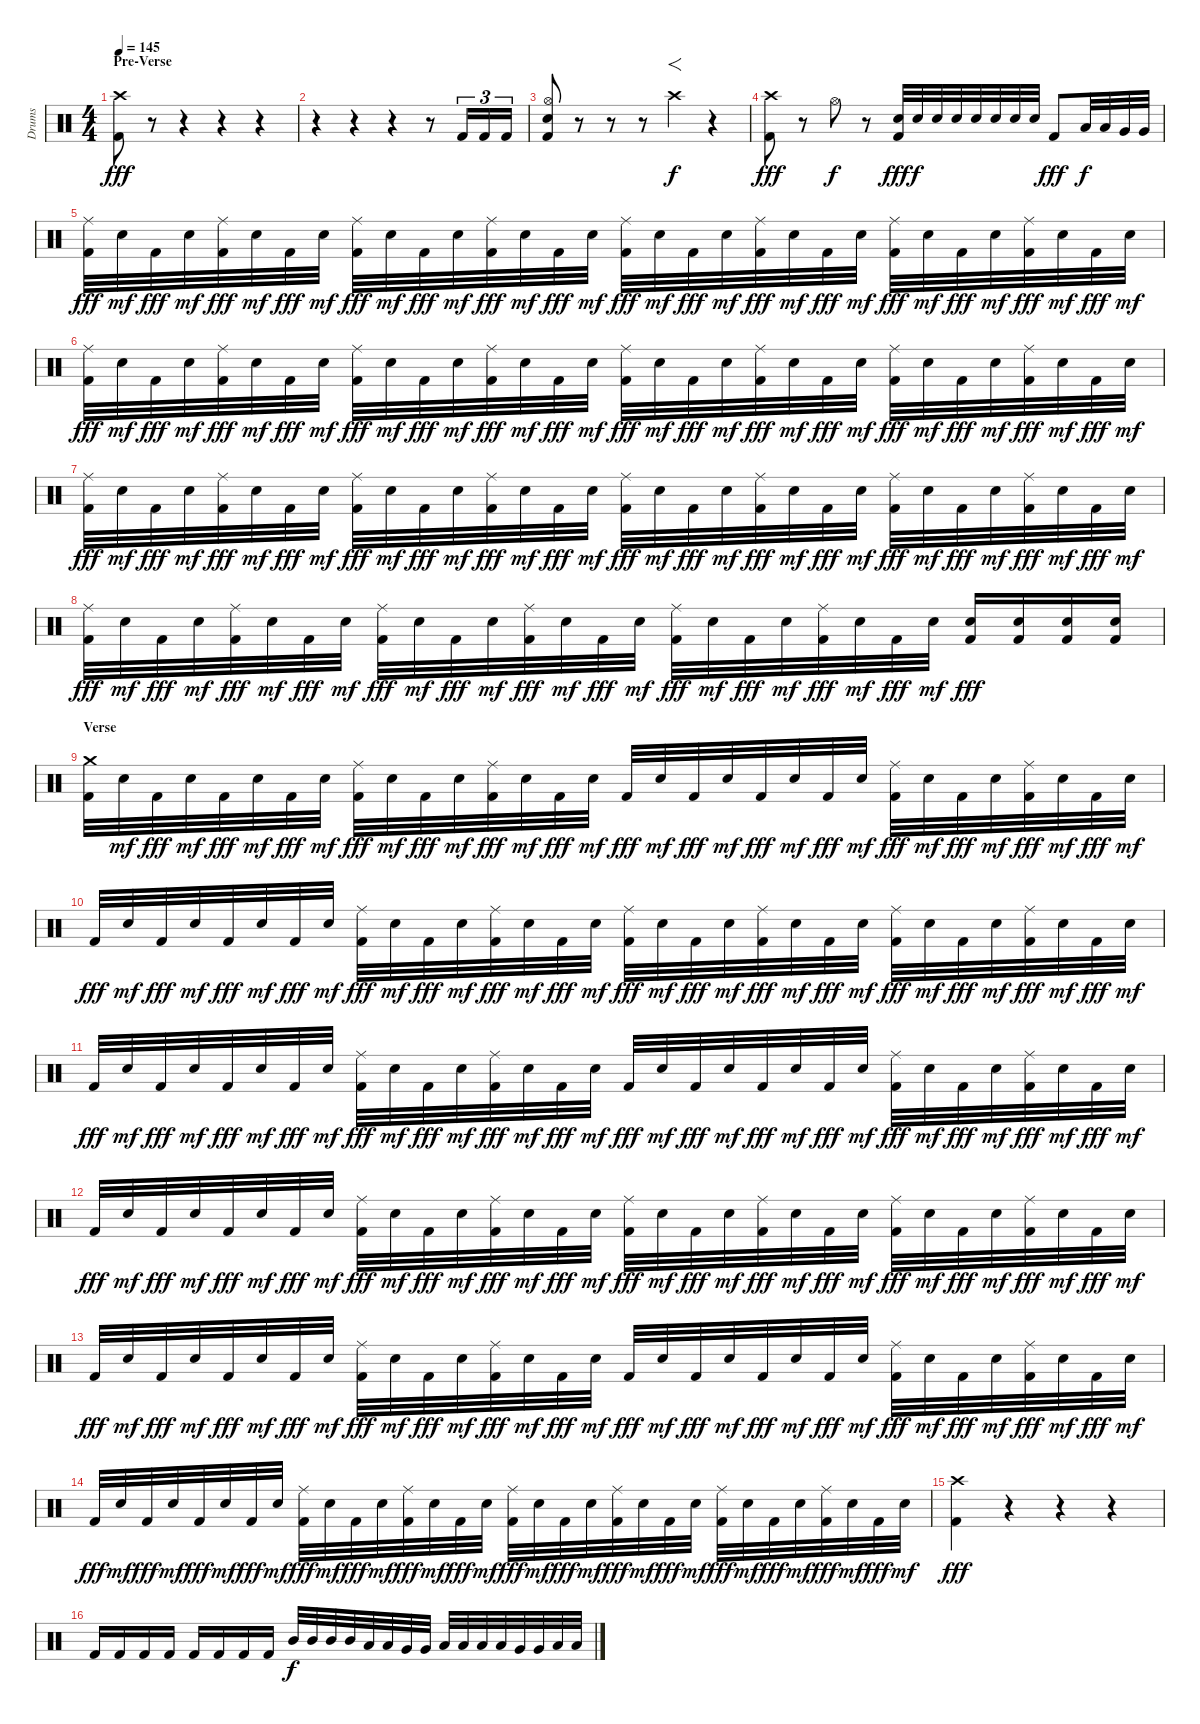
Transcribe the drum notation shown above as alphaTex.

\track ("Drums" "Drums") {instrument percussion}
\staff {score}
\articulation defaults
\ts (4 4)
\section ("" "Pre-Verse")
\tempo 145
\clef neutral
\ks c
("Crash high (hit)" "Kick (hit) 2").8{dy fff} r.8 r.4 r.4 r.4 |
r.4 r.4 r.4 r.8 "Kick (hit) 2".16{tu (3 2)} "Kick (hit) 2".16{tu (3 2)} "Kick (hit) 2".16{tu (3 2)} |
("Hi-Hat (open)" "Electric Snare (hit)" "Kick (hit) 2").8 r.8 r.8 r.8 "Crash high (hit)".4{f dy f} r.4 |
("Crash high (hit)" "Kick (hit) 2").8{dy fff} r.8 "Hi-Hat (open)".8{dy f} r.8 ("Electric Snare (hit)" "Kick (hit) 2").32{dy fff} "Electric Snare (hit)".32{dy f} "Electric Snare (hit)".32 "Electric Snare (hit)".32 "Electric Snare (hit)".32 "Electric Snare (hit)".32 "Electric Snare (hit)".32 "Electric Snare (hit)".32 "Kick (hit) 2".8{dy fff} "Low Tom (hit)".32{dy f} "Low Tom (hit)".32 "Very Low Tom (hit)".32 "Very Low Tom (hit)".32 |
("Ride (middle)" "Kick (hit) 2").32{dy fff} "Electric Snare (hit)".32{dy mf} "Kick (hit) 2".32{dy fff} "Electric Snare (hit)".32{dy mf} ("Ride (middle)" "Kick (hit) 2").32{dy fff} "Electric Snare (hit)".32{dy mf} "Kick (hit) 2".32{dy fff} "Electric Snare (hit)".32{dy mf} ("Ride (middle)" "Kick (hit) 2").32{dy fff} "Electric Snare (hit)".32{dy mf} "Kick (hit) 2".32{dy fff} "Electric Snare (hit)".32{dy mf} ("Ride (middle)" "Kick (hit) 2").32{dy fff} "Electric Snare (hit)".32{dy mf} "Kick (hit) 2".32{dy fff} "Electric Snare (hit)".32{dy mf} ("Ride (middle)" "Kick (hit) 2").32{dy fff} "Electric Snare (hit)".32{dy mf} "Kick (hit) 2".32{dy fff} "Electric Snare (hit)".32{dy mf} ("Ride (middle)" "Kick (hit) 2").32{dy fff} "Electric Snare (hit)".32{dy mf} "Kick (hit) 2".32{dy fff} "Electric Snare (hit)".32{dy mf} ("Ride (middle)" "Kick (hit) 2").32{dy fff} "Electric Snare (hit)".32{dy mf} "Kick (hit) 2".32{dy fff} "Electric Snare (hit)".32{dy mf} ("Ride (middle)" "Kick (hit) 2").32{dy fff} "Electric Snare (hit)".32{dy mf} "Kick (hit) 2".32{dy fff} "Electric Snare (hit)".32{dy mf} |
("Ride (middle)" "Kick (hit) 2").32{dy fff} "Electric Snare (hit)".32{dy mf} "Kick (hit) 2".32{dy fff} "Electric Snare (hit)".32{dy mf} ("Ride (middle)" "Kick (hit) 2").32{dy fff} "Electric Snare (hit)".32{dy mf} "Kick (hit) 2".32{dy fff} "Electric Snare (hit)".32{dy mf} ("Ride (middle)" "Kick (hit) 2").32{dy fff} "Electric Snare (hit)".32{dy mf} "Kick (hit) 2".32{dy fff} "Electric Snare (hit)".32{dy mf} ("Ride (middle)" "Kick (hit) 2").32{dy fff} "Electric Snare (hit)".32{dy mf} "Kick (hit) 2".32{dy fff} "Electric Snare (hit)".32{dy mf} ("Ride (middle)" "Kick (hit) 2").32{dy fff} "Electric Snare (hit)".32{dy mf} "Kick (hit) 2".32{dy fff} "Electric Snare (hit)".32{dy mf} ("Ride (middle)" "Kick (hit) 2").32{dy fff} "Electric Snare (hit)".32{dy mf} "Kick (hit) 2".32{dy fff} "Electric Snare (hit)".32{dy mf} ("Ride (middle)" "Kick (hit) 2").32{dy fff} "Electric Snare (hit)".32{dy mf} "Kick (hit) 2".32{dy fff} "Electric Snare (hit)".32{dy mf} ("Ride (middle)" "Kick (hit) 2").32{dy fff} "Electric Snare (hit)".32{dy mf} "Kick (hit) 2".32{dy fff} "Electric Snare (hit)".32{dy mf} |
("Ride (middle)" "Kick (hit) 2").32{dy fff} "Electric Snare (hit)".32{dy mf} "Kick (hit) 2".32{dy fff} "Electric Snare (hit)".32{dy mf} ("Ride (middle)" "Kick (hit) 2").32{dy fff} "Electric Snare (hit)".32{dy mf} "Kick (hit) 2".32{dy fff} "Electric Snare (hit)".32{dy mf} ("Ride (middle)" "Kick (hit) 2").32{dy fff} "Electric Snare (hit)".32{dy mf} "Kick (hit) 2".32{dy fff} "Electric Snare (hit)".32{dy mf} ("Ride (middle)" "Kick (hit) 2").32{dy fff} "Electric Snare (hit)".32{dy mf} "Kick (hit) 2".32{dy fff} "Electric Snare (hit)".32{dy mf} ("Ride (middle)" "Kick (hit) 2").32{dy fff} "Electric Snare (hit)".32{dy mf} "Kick (hit) 2".32{dy fff} "Electric Snare (hit)".32{dy mf} ("Ride (middle)" "Kick (hit) 2").32{dy fff} "Electric Snare (hit)".32{dy mf} "Kick (hit) 2".32{dy fff} "Electric Snare (hit)".32{dy mf} ("Ride (middle)" "Kick (hit) 2").32{dy fff} "Electric Snare (hit)".32{dy mf} "Kick (hit) 2".32{dy fff} "Electric Snare (hit)".32{dy mf} ("Ride (middle)" "Kick (hit) 2").32{dy fff} "Electric Snare (hit)".32{dy mf} "Kick (hit) 2".32{dy fff} "Electric Snare (hit)".32{dy mf} |
("Ride (middle)" "Kick (hit) 2").32{dy fff} "Electric Snare (hit)".32{dy mf} "Kick (hit) 2".32{dy fff} "Electric Snare (hit)".32{dy mf} ("Ride (middle)" "Kick (hit) 2").32{dy fff} "Electric Snare (hit)".32{dy mf} "Kick (hit) 2".32{dy fff} "Electric Snare (hit)".32{dy mf} ("Ride (middle)" "Kick (hit) 2").32{dy fff} "Electric Snare (hit)".32{dy mf} "Kick (hit) 2".32{dy fff} "Electric Snare (hit)".32{dy mf} ("Ride (middle)" "Kick (hit) 2").32{dy fff} "Electric Snare (hit)".32{dy mf} "Kick (hit) 2".32{dy fff} "Electric Snare (hit)".32{dy mf} ("Ride (middle)" "Kick (hit) 2").32{dy fff} "Electric Snare (hit)".32{dy mf} "Kick (hit) 2".32{dy fff} "Electric Snare (hit)".32{dy mf} ("Ride (middle)" "Kick (hit) 2").32{dy fff} "Electric Snare (hit)".32{dy mf} "Kick (hit) 2".32{dy fff} "Electric Snare (hit)".32{dy mf} ("Electric Snare (hit)" "Kick (hit) 2").16{dy fff} ("Electric Snare (hit)" "Kick (hit) 2").16 ("Electric Snare (hit)" "Kick (hit) 2").16 ("Electric Snare (hit)" "Kick (hit) 2").16 |
\section ("" "Verse")
("Crash medium (hit)" "Kick (hit) 2").32 "Electric Snare (hit)".32{dy mf} "Kick (hit) 2".32{dy fff} "Electric Snare (hit)".32{dy mf} "Kick (hit) 2".32{dy fff} "Electric Snare (hit)".32{dy mf} "Kick (hit) 2".32{dy fff} "Electric Snare (hit)".32{dy mf} ("Ride (middle)" "Kick (hit) 2").32{dy fff} "Electric Snare (hit)".32{dy mf} "Kick (hit) 2".32{dy fff} "Electric Snare (hit)".32{dy mf} ("Ride (middle)" "Kick (hit) 2").32{dy fff} "Electric Snare (hit)".32{dy mf} "Kick (hit) 2".32{dy fff} "Electric Snare (hit)".32{dy mf} "Kick (hit) 2".32{dy fff} "Electric Snare (hit)".32{dy mf} "Kick (hit) 2".32{dy fff} "Electric Snare (hit)".32{dy mf} "Kick (hit) 2".32{dy fff} "Electric Snare (hit)".32{dy mf} "Kick (hit) 2".32{dy fff} "Electric Snare (hit)".32{dy mf} ("Ride (middle)" "Kick (hit) 2").32{dy fff} "Electric Snare (hit)".32{dy mf} "Kick (hit) 2".32{dy fff} "Electric Snare (hit)".32{dy mf} ("Ride (middle)" "Kick (hit) 2").32{dy fff} "Electric Snare (hit)".32{dy mf} "Kick (hit) 2".32{dy fff} "Electric Snare (hit)".32{dy mf} |
"Kick (hit) 2".32{dy fff} "Electric Snare (hit)".32{dy mf} "Kick (hit) 2".32{dy fff} "Electric Snare (hit)".32{dy mf} "Kick (hit) 2".32{dy fff} "Electric Snare (hit)".32{dy mf} "Kick (hit) 2".32{dy fff} "Electric Snare (hit)".32{dy mf} ("Ride (middle)" "Kick (hit) 2").32{dy fff} "Electric Snare (hit)".32{dy mf} "Kick (hit) 2".32{dy fff} "Electric Snare (hit)".32{dy mf} ("Ride (middle)" "Kick (hit) 2").32{dy fff} "Electric Snare (hit)".32{dy mf} "Kick (hit) 2".32{dy fff} "Electric Snare (hit)".32{dy mf} ("Ride (middle)" "Kick (hit) 2").32{dy fff} "Electric Snare (hit)".32{dy mf} "Kick (hit) 2".32{dy fff} "Electric Snare (hit)".32{dy mf} ("Ride (middle)" "Kick (hit) 2").32{dy fff} "Electric Snare (hit)".32{dy mf} "Kick (hit) 2".32{dy fff} "Electric Snare (hit)".32{dy mf} ("Ride (middle)" "Kick (hit) 2").32{dy fff} "Electric Snare (hit)".32{dy mf} "Kick (hit) 2".32{dy fff} "Electric Snare (hit)".32{dy mf} ("Ride (middle)" "Kick (hit) 2").32{dy fff} "Electric Snare (hit)".32{dy mf} "Kick (hit) 2".32{dy fff} "Electric Snare (hit)".32{dy mf} |
"Kick (hit) 2".32{dy fff} "Electric Snare (hit)".32{dy mf} "Kick (hit) 2".32{dy fff} "Electric Snare (hit)".32{dy mf} "Kick (hit) 2".32{dy fff} "Electric Snare (hit)".32{dy mf} "Kick (hit) 2".32{dy fff} "Electric Snare (hit)".32{dy mf} ("Ride (middle)" "Kick (hit) 2").32{dy fff} "Electric Snare (hit)".32{dy mf} "Kick (hit) 2".32{dy fff} "Electric Snare (hit)".32{dy mf} ("Ride (middle)" "Kick (hit) 2").32{dy fff} "Electric Snare (hit)".32{dy mf} "Kick (hit) 2".32{dy fff} "Electric Snare (hit)".32{dy mf} "Kick (hit) 2".32{dy fff} "Electric Snare (hit)".32{dy mf} "Kick (hit) 2".32{dy fff} "Electric Snare (hit)".32{dy mf} "Kick (hit) 2".32{dy fff} "Electric Snare (hit)".32{dy mf} "Kick (hit) 2".32{dy fff} "Electric Snare (hit)".32{dy mf} ("Ride (middle)" "Kick (hit) 2").32{dy fff} "Electric Snare (hit)".32{dy mf} "Kick (hit) 2".32{dy fff} "Electric Snare (hit)".32{dy mf} ("Ride (middle)" "Kick (hit) 2").32{dy fff} "Electric Snare (hit)".32{dy mf} "Kick (hit) 2".32{dy fff} "Electric Snare (hit)".32{dy mf} |
"Kick (hit) 2".32{dy fff} "Electric Snare (hit)".32{dy mf} "Kick (hit) 2".32{dy fff} "Electric Snare (hit)".32{dy mf} "Kick (hit) 2".32{dy fff} "Electric Snare (hit)".32{dy mf} "Kick (hit) 2".32{dy fff} "Electric Snare (hit)".32{dy mf} ("Ride (middle)" "Kick (hit) 2").32{dy fff} "Electric Snare (hit)".32{dy mf} "Kick (hit) 2".32{dy fff} "Electric Snare (hit)".32{dy mf} ("Ride (middle)" "Kick (hit) 2").32{dy fff} "Electric Snare (hit)".32{dy mf} "Kick (hit) 2".32{dy fff} "Electric Snare (hit)".32{dy mf} ("Ride (middle)" "Kick (hit) 2").32{dy fff} "Electric Snare (hit)".32{dy mf} "Kick (hit) 2".32{dy fff} "Electric Snare (hit)".32{dy mf} ("Ride (middle)" "Kick (hit) 2").32{dy fff} "Electric Snare (hit)".32{dy mf} "Kick (hit) 2".32{dy fff} "Electric Snare (hit)".32{dy mf} ("Ride (middle)" "Kick (hit) 2").32{dy fff} "Electric Snare (hit)".32{dy mf} "Kick (hit) 2".32{dy fff} "Electric Snare (hit)".32{dy mf} ("Ride (middle)" "Kick (hit) 2").32{dy fff} "Electric Snare (hit)".32{dy mf} "Kick (hit) 2".32{dy fff} "Electric Snare (hit)".32{dy mf} |
"Kick (hit) 2".32{dy fff} "Electric Snare (hit)".32{dy mf} "Kick (hit) 2".32{dy fff} "Electric Snare (hit)".32{dy mf} "Kick (hit) 2".32{dy fff} "Electric Snare (hit)".32{dy mf} "Kick (hit) 2".32{dy fff} "Electric Snare (hit)".32{dy mf} ("Ride (middle)" "Kick (hit) 2").32{dy fff} "Electric Snare (hit)".32{dy mf} "Kick (hit) 2".32{dy fff} "Electric Snare (hit)".32{dy mf} ("Ride (middle)" "Kick (hit) 2").32{dy fff} "Electric Snare (hit)".32{dy mf} "Kick (hit) 2".32{dy fff} "Electric Snare (hit)".32{dy mf} "Kick (hit) 2".32{dy fff} "Electric Snare (hit)".32{dy mf} "Kick (hit) 2".32{dy fff} "Electric Snare (hit)".32{dy mf} "Kick (hit) 2".32{dy fff} "Electric Snare (hit)".32{dy mf} "Kick (hit) 2".32{dy fff} "Electric Snare (hit)".32{dy mf} ("Ride (middle)" "Kick (hit) 2").32{dy fff} "Electric Snare (hit)".32{dy mf} "Kick (hit) 2".32{dy fff} "Electric Snare (hit)".32{dy mf} ("Ride (middle)" "Kick (hit) 2").32{dy fff} "Electric Snare (hit)".32{dy mf} "Kick (hit) 2".32{dy fff} "Electric Snare (hit)".32{dy mf} |
"Kick (hit) 2".32{dy fff} "Electric Snare (hit)".32{dy mf} "Kick (hit) 2".32{dy fff} "Electric Snare (hit)".32{dy mf} "Kick (hit) 2".32{dy fff} "Electric Snare (hit)".32{dy mf} "Kick (hit) 2".32{dy fff} "Electric Snare (hit)".32{dy mf} ("Ride (middle)" "Kick (hit) 2").32{dy fff} "Electric Snare (hit)".32{dy mf} "Kick (hit) 2".32{dy fff} "Electric Snare (hit)".32{dy mf} ("Ride (middle)" "Kick (hit) 2").32{dy fff} "Electric Snare (hit)".32{dy mf} "Kick (hit) 2".32{dy fff} "Electric Snare (hit)".32{dy mf} ("Ride (middle)" "Kick (hit) 2").32{dy fff} "Electric Snare (hit)".32{dy mf} "Kick (hit) 2".32{dy fff} "Electric Snare (hit)".32{dy mf} ("Ride (middle)" "Kick (hit) 2").32{dy fff} "Electric Snare (hit)".32{dy mf} "Kick (hit) 2".32{dy fff} "Electric Snare (hit)".32{dy mf} ("Ride (middle)" "Kick (hit) 2").32{dy fff} "Electric Snare (hit)".32{dy mf} "Kick (hit) 2".32{dy fff} "Electric Snare (hit)".32{dy mf} ("Ride (middle)" "Kick (hit) 2").32{dy fff} "Electric Snare (hit)".32{dy mf} "Kick (hit) 2".32{dy fff} "Electric Snare (hit)".32{dy mf} |
("Crash high (hit)" "Kick (hit) 2").4{dy fff} r.4 r.4 r.4 |
"Kick (hit) 2".16 "Kick (hit) 2".16 "Kick (hit) 2".16 "Kick (hit) 2".16 "Kick (hit) 2".16 "Kick (hit) 2".16 "Kick (hit) 2".16 "Kick (hit) 2".16 "Mid Tom (hit)".32{dy f} "Mid Tom (hit)".32 "Mid Tom (hit)".32 "Mid Tom (hit)".32 "Low Tom (hit)".32 "Low Tom (hit)".32 "Very Low Tom (hit)".32 "Very Low Tom (hit)".32 "Low Tom (hit)".32 "Low Tom (hit)".32 "Low Tom (hit)".32 "Low Tom (hit)".32 "Very Low Tom (hit)".32 "Very Low Tom (hit)".32 "Low Floor Tom (hit)".32 "Low Floor Tom (hit)".32
